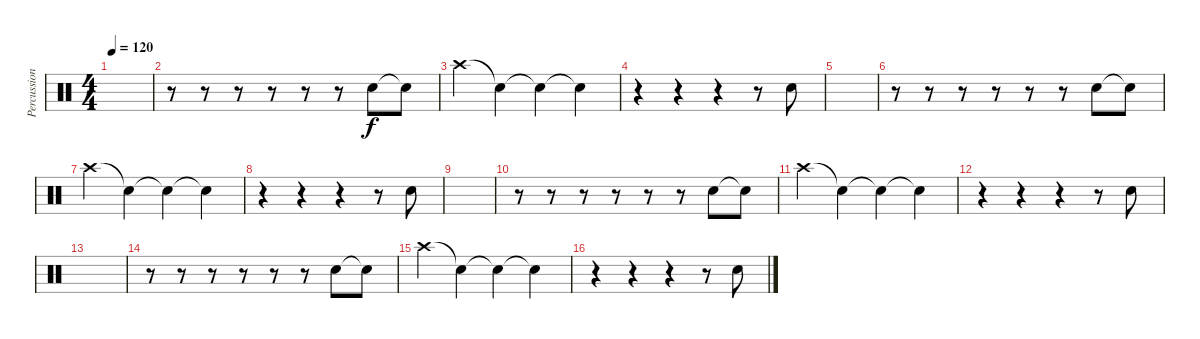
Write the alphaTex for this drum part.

\track ("Percussion" "Percussion") {instrument percussion}
\staff {score}
\articulation defaults
\ts (4 4)
\tempo 120
\tempo 180
\tempo 120
\clef neutral
\ks c
|
r.8 r.8 r.8 r.8 r.8 r.8 "Electric Snare (hit)".8 "Snare (hit) 2"{t}.8 |
"Crash high (hit)".4 "Snare (hit)"{t}.4 "Snare (hit)"{t}.4 "Snare (hit)"{t}.4 |
r.4 r.4 r.4 r.8 "Electric Snare (hit)".8 |
|
r.8 r.8 r.8 r.8 r.8 r.8 "Electric Snare (hit)".8 "Snare (hit) 2"{t}.8 |
"Crash high (hit)".4 "Snare (hit)"{t}.4 "Snare (hit)"{t}.4 "Snare (hit)"{t}.4 |
r.4 r.4 r.4 r.8 "Electric Snare (hit)".8 |
|
r.8 r.8 r.8 r.8 r.8 r.8 "Electric Snare (hit)".8 "Snare (hit) 2"{t}.8 |
"Crash high (hit)".4 "Snare (hit)"{t}.4 "Snare (hit)"{t}.4 "Snare (hit)"{t}.4 |
r.4 r.4 r.4 r.8 "Electric Snare (hit)".8 |
|
r.8 r.8 r.8 r.8 r.8 r.8 "Electric Snare (hit)".8 "Snare (hit) 2"{t}.8 |
"Crash high (hit)".4 "Snare (hit)"{t}.4 "Snare (hit)"{t}.4 "Snare (hit)"{t}.4 |
r.4 r.4 r.4 r.8 "Electric Snare (hit)".8
